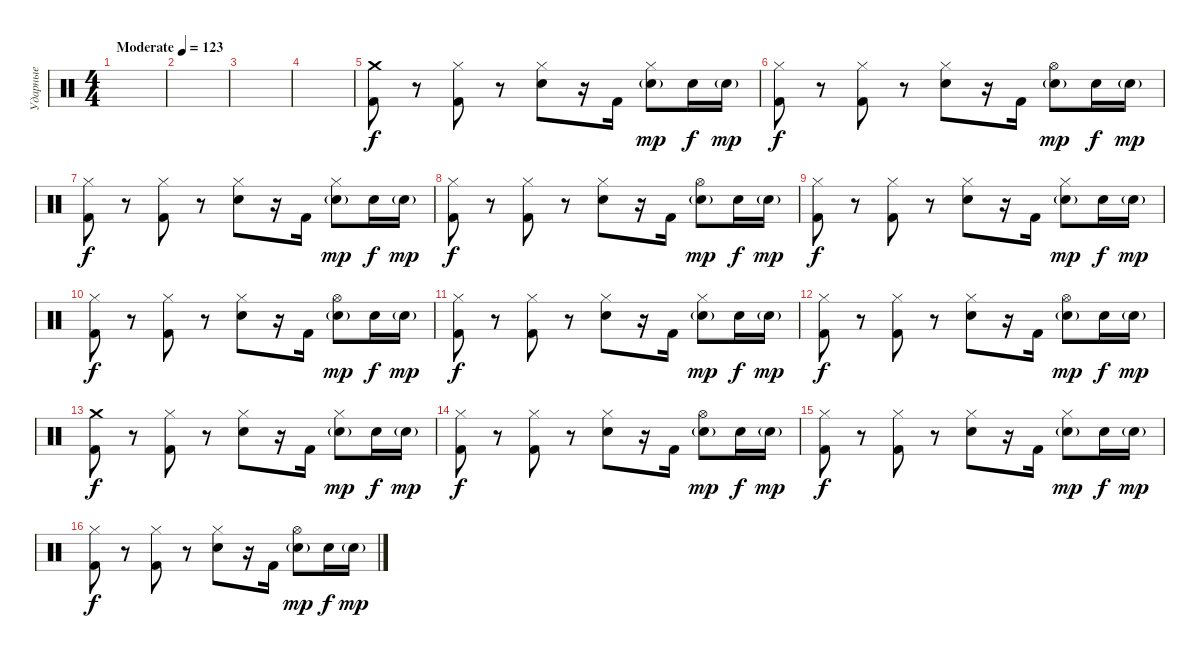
\track ("Ударные" "Ударные") {instrument percussion}
\staff {score}
\articulation defaults
\ts (4 4)
\tempo (123 "Moderate")
\clef neutral
\ks c
|
|
|
|
("Crash medium (hit)" "Kick (hit) 2").8{volume 14} r.8 ("Hi-Hat (closed)" "Kick (hit) 2").8 r.8 ("Hi-Hat (closed)" "Electric Snare (hit)").8 r.16 "Kick (hit) 2".16 ("Hi-Hat (closed)" "Electric Snare (hit)"{g}).8{dy mp} "Electric Snare (hit)".16{dy f} "Electric Snare (hit)"{g}.16{dy mp} |
("Hi-Hat (closed)" "Kick (hit) 2").8{dy f} r.8 ("Hi-Hat (closed)" "Kick (hit) 2").8 r.8 ("Hi-Hat (closed)" "Electric Snare (hit)").8 r.16 "Kick (hit) 2".16 ("Hi-Hat (open)" "Electric Snare (hit)"{g}).8{dy mp} "Electric Snare (hit)".16{dy f} "Electric Snare (hit)"{g}.16{dy mp} |
("Hi-Hat (closed)" "Kick (hit) 2").8{dy f} r.8 ("Hi-Hat (closed)" "Kick (hit) 2").8 r.8 ("Hi-Hat (closed)" "Electric Snare (hit)").8 r.16 "Kick (hit) 2".16 ("Hi-Hat (closed)" "Electric Snare (hit)"{g}).8{dy mp} "Electric Snare (hit)".16{dy f} "Electric Snare (hit)"{g}.16{dy mp} |
("Hi-Hat (closed)" "Kick (hit) 2").8{dy f} r.8 ("Hi-Hat (closed)" "Kick (hit) 2").8 r.8 ("Hi-Hat (closed)" "Electric Snare (hit)").8 r.16 "Kick (hit) 2".16 ("Hi-Hat (open)" "Electric Snare (hit)"{g}).8{dy mp} "Electric Snare (hit)".16{dy f} "Electric Snare (hit)"{g}.16{dy mp} |
("Hi-Hat (closed)" "Kick (hit) 2").8{dy f} r.8 ("Hi-Hat (closed)" "Kick (hit) 2").8 r.8 ("Hi-Hat (closed)" "Electric Snare (hit)").8 r.16 "Kick (hit) 2".16 ("Hi-Hat (closed)" "Electric Snare (hit)"{g}).8{dy mp} "Electric Snare (hit)".16{dy f} "Electric Snare (hit)"{g}.16{dy mp} |
("Hi-Hat (closed)" "Kick (hit) 2").8{dy f} r.8 ("Hi-Hat (closed)" "Kick (hit) 2").8 r.8 ("Hi-Hat (closed)" "Electric Snare (hit)").8 r.16 "Kick (hit) 2".16 ("Hi-Hat (open)" "Electric Snare (hit)"{g}).8{dy mp} "Electric Snare (hit)".16{dy f} "Electric Snare (hit)"{g}.16{dy mp} |
("Hi-Hat (closed)" "Kick (hit) 2").8{dy f} r.8 ("Hi-Hat (closed)" "Kick (hit) 2").8 r.8 ("Hi-Hat (closed)" "Electric Snare (hit)").8 r.16 "Kick (hit) 2".16 ("Hi-Hat (closed)" "Electric Snare (hit)"{g}).8{dy mp} "Electric Snare (hit)".16{dy f} "Electric Snare (hit)"{g}.16{dy mp} |
("Hi-Hat (closed)" "Kick (hit) 2").8{dy f} r.8 ("Hi-Hat (closed)" "Kick (hit) 2").8 r.8 ("Hi-Hat (closed)" "Electric Snare (hit)").8 r.16 "Kick (hit) 2".16 ("Hi-Hat (open)" "Electric Snare (hit)"{g}).8{dy mp} "Electric Snare (hit)".16{dy f} "Electric Snare (hit)"{g}.16{dy mp} |
("Crash medium (hit)" "Kick (hit) 2").8{dy f} r.8 ("Hi-Hat (closed)" "Kick (hit) 2").8 r.8 ("Hi-Hat (closed)" "Electric Snare (hit)").8 r.16 "Kick (hit) 2".16 ("Hi-Hat (closed)" "Electric Snare (hit)"{g}).8{dy mp} "Electric Snare (hit)".16{dy f} "Electric Snare (hit)"{g}.16{dy mp} |
("Hi-Hat (closed)" "Kick (hit) 2").8{dy f} r.8 ("Hi-Hat (closed)" "Kick (hit) 2").8 r.8 ("Hi-Hat (closed)" "Electric Snare (hit)").8 r.16 "Kick (hit) 2".16 ("Hi-Hat (open)" "Electric Snare (hit)"{g}).8{dy mp} "Electric Snare (hit)".16{dy f} "Electric Snare (hit)"{g}.16{dy mp} |
("Hi-Hat (closed)" "Kick (hit) 2").8{dy f} r.8 ("Hi-Hat (closed)" "Kick (hit) 2").8 r.8 ("Hi-Hat (closed)" "Electric Snare (hit)").8 r.16 "Kick (hit) 2".16 ("Hi-Hat (closed)" "Electric Snare (hit)"{g}).8{dy mp} "Electric Snare (hit)".16{dy f} "Electric Snare (hit)"{g}.16{dy mp} |
("Hi-Hat (closed)" "Kick (hit) 2").8{dy f} r.8 ("Hi-Hat (closed)" "Kick (hit) 2").8 r.8 ("Hi-Hat (closed)" "Electric Snare (hit)").8 r.16 "Kick (hit) 2".16 ("Hi-Hat (open)" "Electric Snare (hit)"{g}).8{dy mp} "Electric Snare (hit)".16{dy f} "Electric Snare (hit)"{g}.16{dy mp}
